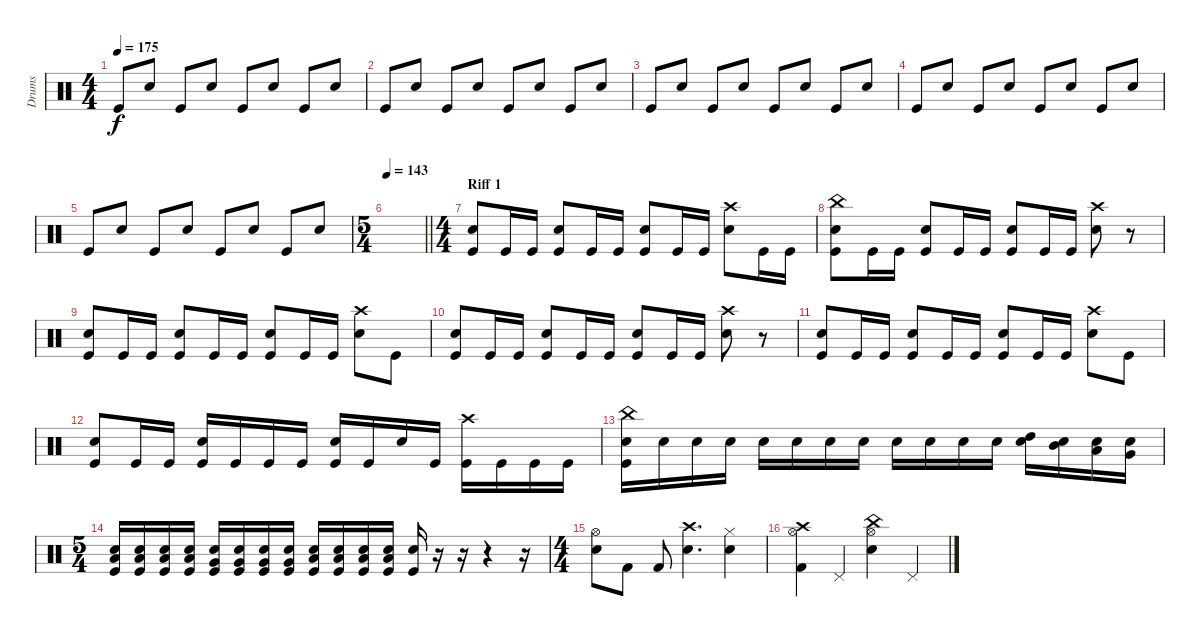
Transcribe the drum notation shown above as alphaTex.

\track ("Drums" "Drums") {instrument percussion}
\staff {score}
\articulation defaults
\ts (4 4)
\tempo 175
\clef neutral
\ks c "Kick (hit)".8{dy f} "Snare (hit) 2".8 "Kick (hit)".8 "Snare (hit) 2".8 "Kick (hit)".8 "Snare (hit) 2".8 "Kick (hit)".8 "Snare (hit) 2".8
|
"Kick (hit)".8 "Snare (hit) 2".8 "Kick (hit)".8 "Snare (hit) 2".8 "Kick (hit)".8 "Snare (hit) 2".8 "Kick (hit)".8 "Snare (hit) 2".8 |
"Kick (hit)".8 "Snare (hit) 2".8 "Kick (hit)".8 "Snare (hit) 2".8 "Kick (hit)".8 "Snare (hit) 2".8 "Kick (hit)".8 "Snare (hit) 2".8 |
"Kick (hit)".8 "Snare (hit) 2".8 "Kick (hit)".8 "Snare (hit) 2".8 "Kick (hit)".8 "Snare (hit) 2".8 "Kick (hit)".8 "Snare (hit) 2".8 |
"Kick (hit)".8 "Snare (hit) 2".8 "Kick (hit)".8 "Snare (hit) 2".8 "Kick (hit)".8 "Snare (hit) 2".8 "Kick (hit)".8 "Snare (hit) 2".8 |
\ts (5 4)
\tempo 143
\barLineRight lightlight
|
\ts (4 4)
\section ("" "Riff 1")
("Snare (hit) 2" "Kick (hit)").8 "Kick (hit)".16 "Kick (hit)".16 ("Snare (hit) 2" "Kick (hit)").8 "Kick (hit)".16 "Kick (hit)".16 ("Snare (hit) 2" "Kick (hit)").8 "Kick (hit)".16 "Kick (hit)".16 ("Crash high (hit)" "Snare (hit) 2").8 "Kick (hit)".16 "Kick (hit)".16 |
("China (hit)" "Snare (hit) 2" "Kick (hit)").8 "Kick (hit)".16 "Kick (hit)".16 ("Snare (hit) 2" "Kick (hit)").8 "Kick (hit)".16 "Kick (hit)".16 ("Snare (hit) 2" "Kick (hit)").8 "Kick (hit)".16 "Kick (hit)".16 ("Crash high (hit)" "Snare (hit) 2").8 r.8 |
("Snare (hit) 2" "Kick (hit)").8 "Kick (hit)".16 "Kick (hit)".16 ("Snare (hit) 2" "Kick (hit)").8 "Kick (hit)".16 "Kick (hit)".16 ("Snare (hit) 2" "Kick (hit)").8 "Kick (hit)".16 "Kick (hit)".16 ("Crash high (hit)" "Snare (hit) 2").8 "Kick (hit)".8 |
("Snare (hit) 2" "Kick (hit)").8 "Kick (hit)".16 "Kick (hit)".16 ("Snare (hit) 2" "Kick (hit)").8 "Kick (hit)".16 "Kick (hit)".16 ("Snare (hit) 2" "Kick (hit)").8 "Kick (hit)".16 "Kick (hit)".16 ("Crash high (hit)" "Snare (hit) 2").8 r.8 |
("Snare (hit) 2" "Kick (hit)").8 "Kick (hit)".16 "Kick (hit)".16 ("Snare (hit) 2" "Kick (hit)").8 "Kick (hit)".16 "Kick (hit)".16 ("Snare (hit) 2" "Kick (hit)").8 "Kick (hit)".16 "Kick (hit)".16 ("Crash high (hit)" "Snare (hit) 2").8 "Kick (hit)".8 |
("Snare (hit) 2" "Kick (hit)").8 "Kick (hit)".16 "Kick (hit)".16 ("Snare (hit) 2" "Kick (hit)").16 "Kick (hit)".16 "Kick (hit)".16 "Kick (hit)".16 ("Kick (hit)" "Snare (hit) 2").16 "Kick (hit)".16 "Snare (hit) 2".16 "Kick (hit)".16 ("Crash high (hit)" "Kick (hit)").16 "Kick (hit)".16 "Kick (hit)".16 "Kick (hit)".16 |
("China (hit)" "Snare (hit) 2" "Kick (hit)").16 "Snare (hit) 2".16 "Snare (hit) 2".16 "Snare (hit) 2".16 "Snare (hit) 2".16 "Snare (hit) 2".16 "Snare (hit) 2".16 "Snare (hit) 2".16 "Snare (hit) 2".16 "Snare (hit) 2".16 "Snare (hit) 2".16 "Snare (hit) 2".16 ("High Tom (hit)" "Snare (hit) 2").16 ("Mid Tom (hit)" "Snare (hit) 2").16 ("Low Tom (hit)" "Snare (hit) 2").16 ("Very Low Tom (hit)" "Snare (hit) 2").16 |
\ts (5 4)
("Low Tom (hit)" "Snare (hit) 2" "Kick (hit)").16 ("Low Tom (hit)" "Snare (hit) 2" "Kick (hit)").16 ("Low Tom (hit)" "Snare (hit) 2" "Kick (hit)").16 ("Low Tom (hit)" "Snare (hit) 2" "Kick (hit)").16 ("Very Low Tom (hit)" "Snare (hit) 2" "Kick (hit)").16 ("Very Low Tom (hit)" "Snare (hit) 2" "Kick (hit)").16 ("Very Low Tom (hit)" "Snare (hit) 2" "Kick (hit)").16 ("Very Low Tom (hit)" "Snare (hit) 2" "Kick (hit)").16 ("Low Floor Tom (hit)" "Snare (hit) 2" "Kick (hit)").16 ("Low Floor Tom (hit)" "Snare (hit) 2" "Kick (hit)").16 ("Low Floor Tom (hit)" "Snare (hit) 2" "Kick (hit)").16 ("Low Floor Tom (hit)" "Snare (hit) 2" "Kick (hit)").16 ("Kick (hit)" "Snare (hit) 2").16 r.16 r.16 r.4 r.16 |
\ts (4 4)
("Hi-Hat (open)" "Snare (hit) 2").8 "Kick (hit) 2".8 "Kick (hit) 2".8 ("Crash high (hit)" "Snare (hit) 2").4{d} ("Hi-Hat (closed)" "Snare (hit) 2").4 |
("Hi-Hat (open)" "Crash high (hit)" "Kick (hit) 2").4 "Pedal Hi-Hat (hit)".4 ("China (hit)" "Hi-Hat (open)" "Snare (hit) 2").4 "Pedal Hi-Hat (hit)".4
